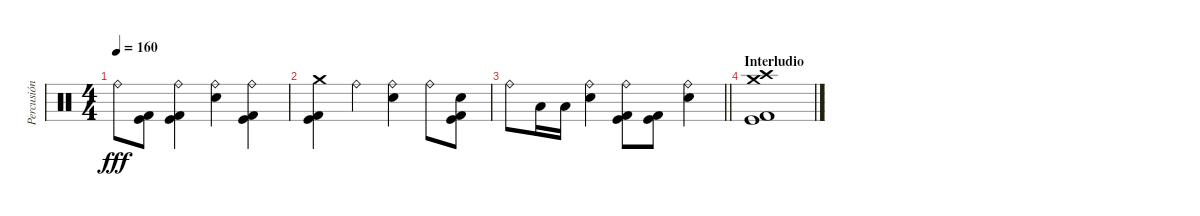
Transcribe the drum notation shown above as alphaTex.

\track ("Percusión" "Percusión") {instrument percussion}
\staff {score}
\articulation defaults
\ts (4 4)
\tempo 160
\clef neutral
\ks c "Ride (bell)".8{dy fff}
("Kick (hit)" "Kick (hit) 2").8 ("Ride (bell)" "Kick (hit)" "Kick (hit) 2").4 ("Ride (bell)" "Electric Snare (hit)").4 ("Ride (bell)" "Kick (hit)" "Kick (hit) 2").4 |
("Crash medium (hit)" "Kick (hit)" "Kick (hit) 2").4 "Ride (bell)".4 ("Ride (bell)" "Electric Snare (hit)").4 "Ride (bell)".8 ("Electric Snare (hit)" "Kick (hit)" "Kick (hit) 2").8 |
\barLineRight lightlight "Ride (bell)".8 "Low Tom (hit)".16 "Low Tom (hit)".16
("Ride (bell)" "Electric Snare (hit)").4 ("Ride (bell)" "Kick (hit)" "Kick (hit) 2").8 ("Kick (hit)" "Kick (hit) 2").8 ("Ride (bell)" "Electric Snare (hit)").4 |
\section ("" "Interludio")
("Crash medium (hit)" "Crash high (hit)" "Kick (hit)" "Kick (hit) 2").1
